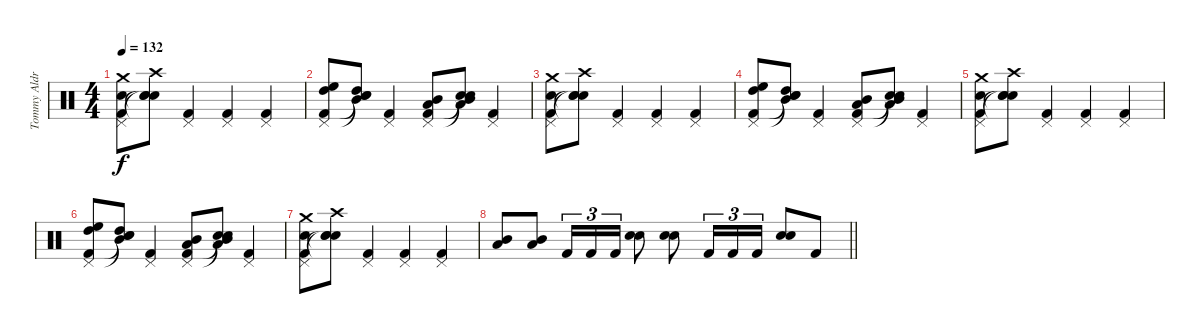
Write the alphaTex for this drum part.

\track ("Tommy Aldridge" "Tommy Aldr") {instrument percussion}
\staff {score}
\articulation defaults
\ts (4 4)
\tempo 132
\clef neutral
\ks c
("Crash medium (hit)" "Snare (hit) 2" "Pedal Hi-Hat (hit)" "Kick (hit) 2").8{dy f} ("Crash high (hit)" "Snare (hit) 2" "Snare (hit)"{t} "Snare (hit)"{t}).8 ("Pedal Hi-Hat (hit)" "Kick (hit) 2").4 ("Pedal Hi-Hat (hit)" "Kick (hit) 2").4 ("Pedal Hi-Hat (hit)" "Kick (hit) 2").4 |
("High Floor Tom (hit)" "High Tom (hit)" "Pedal Hi-Hat (hit)" "Kick (hit) 2").8 ("High Tom (hit)" "Mid Tom (hit)" "Snare (hit)"{t} "Snare (hit)"{t}).8 ("Pedal Hi-Hat (hit)" "Kick (hit) 2").4 ("Mid Tom (hit)" "Low Tom (hit)" "Pedal Hi-Hat (hit)" "Kick (hit) 2").8 ("Mid Tom (hit)" "Low Tom (hit)" "Snare (hit)"{t} "Snare (hit)"{t}).8 ("Pedal Hi-Hat (hit)" "Kick (hit) 2").4 |
("Crash medium (hit)" "Snare (hit) 2" "Pedal Hi-Hat (hit)" "Kick (hit) 2").8 ("Crash high (hit)" "Snare (hit) 2" "Snare (hit)"{t} "Snare (hit)"{t}).8 ("Pedal Hi-Hat (hit)" "Kick (hit) 2").4 ("Pedal Hi-Hat (hit)" "Kick (hit) 2").4 ("Pedal Hi-Hat (hit)" "Kick (hit) 2").4 |
("High Floor Tom (hit)" "High Tom (hit)" "Pedal Hi-Hat (hit)" "Kick (hit) 2").8 ("High Tom (hit)" "Mid Tom (hit)" "Snare (hit)"{t} "Snare (hit)"{t}).8 ("Pedal Hi-Hat (hit)" "Kick (hit) 2").4 ("Mid Tom (hit)" "Low Tom (hit)" "Pedal Hi-Hat (hit)" "Kick (hit) 2").8 ("Mid Tom (hit)" "Low Tom (hit)" "Snare (hit)"{t} "Snare (hit)"{t}).8 ("Pedal Hi-Hat (hit)" "Kick (hit) 2").4 |
("Crash medium (hit)" "Snare (hit) 2" "Pedal Hi-Hat (hit)" "Kick (hit) 2").8 ("Crash high (hit)" "Snare (hit) 2" "Snare (hit)"{t} "Snare (hit)"{t}).8 ("Pedal Hi-Hat (hit)" "Kick (hit) 2").4 ("Pedal Hi-Hat (hit)" "Kick (hit) 2").4 ("Pedal Hi-Hat (hit)" "Kick (hit) 2").4 |
("High Floor Tom (hit)" "High Tom (hit)" "Pedal Hi-Hat (hit)" "Kick (hit) 2").8 ("High Tom (hit)" "Mid Tom (hit)" "Snare (hit)"{t} "Snare (hit)"{t}).8 ("Pedal Hi-Hat (hit)" "Kick (hit) 2").4 ("Mid Tom (hit)" "Low Tom (hit)" "Pedal Hi-Hat (hit)" "Kick (hit) 2").8 ("Mid Tom (hit)" "Low Tom (hit)" "Snare (hit)"{t} "Snare (hit)"{t}).8 ("Pedal Hi-Hat (hit)" "Kick (hit) 2").4 |
("Crash medium (hit)" "Snare (hit) 2" "Pedal Hi-Hat (hit)" "Kick (hit) 2").8 ("Crash high (hit)" "Snare (hit) 2" "Snare (hit)"{t} "Snare (hit)"{t}).8 ("Pedal Hi-Hat (hit)" "Kick (hit) 2").4 ("Pedal Hi-Hat (hit)" "Kick (hit) 2").4 ("Pedal Hi-Hat (hit)" "Kick (hit) 2").4 |
\barLineRight lightlight
("Mid Tom (hit)" "Low Tom (hit)").8 ("Mid Tom (hit)" "Low Tom (hit)").8 "Kick (hit) 2".16{tu (3 2)} "Kick (hit) 2".16{tu (3 2)} "Kick (hit) 2".16{tu (3 2)} ("Snare (hit) 2" "Snare (hit) 2").8{bd 480} ("Snare (hit) 2" "Snare (hit) 2").8{bd 480} "Kick (hit) 2".16{tu (3 2)} "Kick (hit) 2".16{tu (3 2)} "Kick (hit) 2".16{tu (3 2)} ("Snare (hit) 2" "Snare (hit) 2").8{bd 480} "Kick (hit) 2".8
